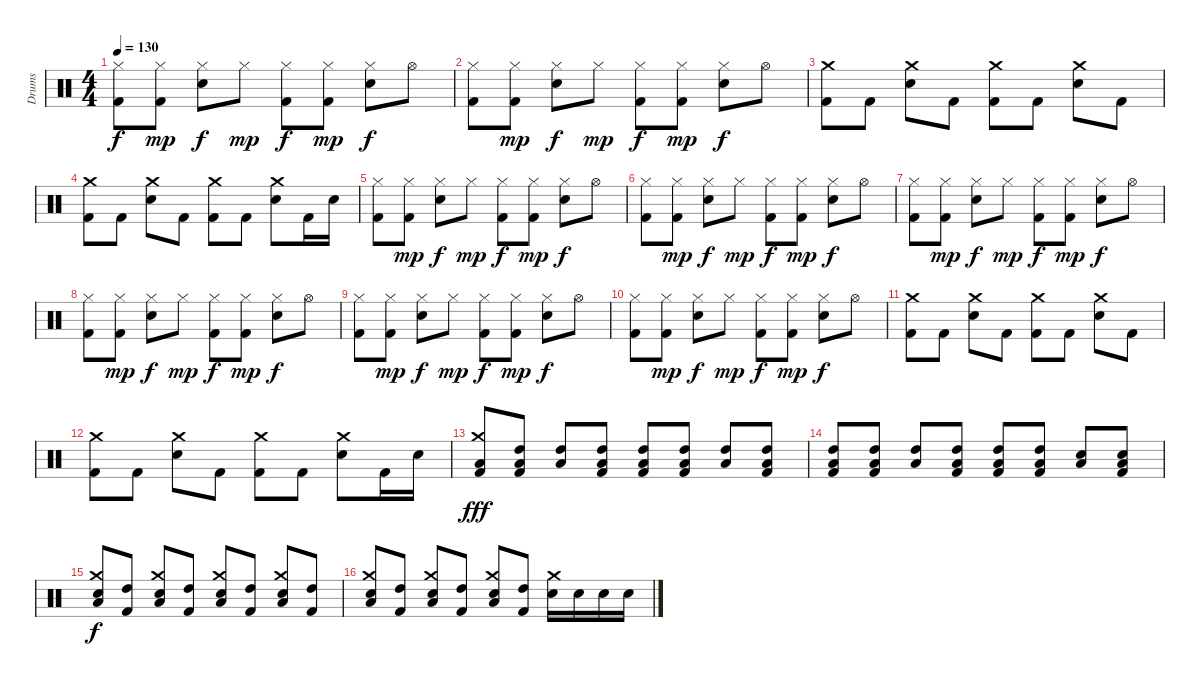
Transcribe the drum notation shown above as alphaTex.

\track ("Drums" "Drums") {instrument percussion}
\staff {score}
\articulation defaults
\ts (4 4)
\tempo 130
\clef neutral
\ks c
("Hi-Hat (closed)" "Kick (hit) 2").8{dy f} ("Hi-Hat (closed)" "Kick (hit) 2").8{dy mp} ("Hi-Hat (closed)" "Snare (hit) 2").8{dy f} "Hi-Hat (closed)".8{dy mp} ("Hi-Hat (closed)" "Kick (hit) 2").8{dy f} ("Hi-Hat (closed)" "Kick (hit) 2").8{dy mp} ("Hi-Hat (closed)" "Snare (hit) 2").8{dy f} "Hi-Hat (open)".8 |
("Hi-Hat (closed)" "Kick (hit) 2").8 ("Hi-Hat (closed)" "Kick (hit) 2").8{dy mp} ("Hi-Hat (closed)" "Snare (hit) 2").8{dy f} "Hi-Hat (closed)".8{dy mp} ("Hi-Hat (closed)" "Kick (hit) 2").8{dy f} ("Hi-Hat (closed)" "Kick (hit) 2").8{dy mp} ("Hi-Hat (closed)" "Snare (hit) 2").8{dy f} "Hi-Hat (open)".8 |
("Crash medium (hit)" "Kick (hit) 2").8 "Kick (hit) 2".8 ("Crash medium (hit)" "Snare (hit) 2").8 "Kick (hit) 2".8 ("Crash medium (hit)" "Kick (hit) 2").8 "Kick (hit) 2".8 ("Crash medium (hit)" "Snare (hit) 2").8 "Kick (hit) 2".8 |
("Crash medium (hit)" "Kick (hit) 2").8 "Kick (hit) 2".8 ("Crash medium (hit)" "Snare (hit) 2").8 "Kick (hit) 2".8 ("Crash medium (hit)" "Kick (hit) 2").8 "Kick (hit) 2".8 ("Crash medium (hit)" "Snare (hit) 2").8 "Kick (hit) 2".16 "Snare (hit) 2".16 |
("Hi-Hat (closed)" "Kick (hit) 2").8 ("Hi-Hat (closed)" "Kick (hit) 2").8{dy mp} ("Hi-Hat (closed)" "Snare (hit) 2").8{dy f} "Hi-Hat (closed)".8{dy mp} ("Hi-Hat (closed)" "Kick (hit) 2").8{dy f} ("Hi-Hat (closed)" "Kick (hit) 2").8{dy mp} ("Hi-Hat (closed)" "Snare (hit) 2").8{dy f} "Hi-Hat (open)".8 |
("Hi-Hat (closed)" "Kick (hit) 2").8 ("Hi-Hat (closed)" "Kick (hit) 2").8{dy mp} ("Hi-Hat (closed)" "Snare (hit) 2").8{dy f} "Hi-Hat (closed)".8{dy mp} ("Hi-Hat (closed)" "Kick (hit) 2").8{dy f} ("Hi-Hat (closed)" "Kick (hit) 2").8{dy mp} ("Hi-Hat (closed)" "Snare (hit) 2").8{dy f} "Hi-Hat (open)".8 |
("Hi-Hat (closed)" "Kick (hit) 2").8 ("Hi-Hat (closed)" "Kick (hit) 2").8{dy mp} ("Hi-Hat (closed)" "Snare (hit) 2").8{dy f} "Hi-Hat (closed)".8{dy mp} ("Hi-Hat (closed)" "Kick (hit) 2").8{dy f} ("Hi-Hat (closed)" "Kick (hit) 2").8{dy mp} ("Hi-Hat (closed)" "Snare (hit) 2").8{dy f} "Hi-Hat (open)".8 |
("Hi-Hat (closed)" "Kick (hit) 2").8 ("Hi-Hat (closed)" "Kick (hit) 2").8{dy mp} ("Hi-Hat (closed)" "Snare (hit) 2").8{dy f} "Hi-Hat (closed)".8{dy mp} ("Hi-Hat (closed)" "Kick (hit) 2").8{dy f} ("Hi-Hat (closed)" "Kick (hit) 2").8{dy mp} ("Hi-Hat (closed)" "Snare (hit) 2").8{dy f} "Hi-Hat (open)".8 |
("Hi-Hat (closed)" "Kick (hit) 2").8 ("Hi-Hat (closed)" "Kick (hit) 2").8{dy mp} ("Hi-Hat (closed)" "Snare (hit) 2").8{dy f} "Hi-Hat (closed)".8{dy mp} ("Hi-Hat (closed)" "Kick (hit) 2").8{dy f} ("Hi-Hat (closed)" "Kick (hit) 2").8{dy mp} ("Hi-Hat (closed)" "Snare (hit) 2").8{dy f} "Hi-Hat (open)".8 |
("Hi-Hat (closed)" "Kick (hit) 2").8 ("Hi-Hat (closed)" "Kick (hit) 2").8{dy mp} ("Hi-Hat (closed)" "Snare (hit) 2").8{dy f} "Hi-Hat (closed)".8{dy mp} ("Hi-Hat (closed)" "Kick (hit) 2").8{dy f} ("Hi-Hat (closed)" "Kick (hit) 2").8{dy mp} ("Hi-Hat (closed)" "Snare (hit) 2").8{dy f} "Hi-Hat (open)".8 |
("Crash medium (hit)" "Kick (hit) 2").8 "Kick (hit) 2".8 ("Crash medium (hit)" "Snare (hit) 2").8 "Kick (hit) 2".8 ("Crash medium (hit)" "Kick (hit) 2").8 "Kick (hit) 2".8 ("Crash medium (hit)" "Snare (hit) 2").8 "Kick (hit) 2".8 |
("Crash medium (hit)" "Kick (hit) 2").8 "Kick (hit) 2".8 ("Crash medium (hit)" "Snare (hit) 2").8 "Kick (hit) 2".8 ("Crash medium (hit)" "Kick (hit) 2").8 "Kick (hit) 2".8 ("Crash medium (hit)" "Snare (hit) 2").8 "Kick (hit) 2".16 "Snare (hit) 2".16 |
("Crash medium (hit)" "Low Tom (hit)" "Kick (hit) 2").8{dy fff} ("High Tom (hit)" "Low Tom (hit)" "Kick (hit) 2").8 ("High Tom (hit)" "Low Tom (hit)").8 ("High Tom (hit)" "Low Tom (hit)" "Kick (hit) 2").8 ("High Tom (hit)" "Low Tom (hit)" "Kick (hit) 2").8 ("High Tom (hit)" "Low Tom (hit)" "Kick (hit) 2").8 ("Low Tom (hit)" "High Tom (hit)").8 ("High Tom (hit)" "Low Tom (hit)" "Kick (hit) 2").8 |
("High Tom (hit)" "Low Tom (hit)" "Kick (hit) 2").8 ("High Tom (hit)" "Low Tom (hit)" "Kick (hit) 2").8 ("High Tom (hit)" "Low Tom (hit)").8 ("High Tom (hit)" "Low Tom (hit)" "Kick (hit) 2").8 ("High Tom (hit)" "Low Tom (hit)" "Kick (hit) 2").8 ("High Tom (hit)" "Low Tom (hit)" "Kick (hit) 2").8 ("Low Tom (hit)" "Snare (hit) 2").8 ("Low Tom (hit)" "Snare (hit) 2" "Kick (hit) 2").8 |
("Crash medium (hit)" "Low Tom (hit)" "Snare (hit) 2").8{dy f} ("High Tom (hit)" "Kick (hit) 2").8 ("Crash medium (hit)" "Low Tom (hit)" "Snare (hit) 2").8 ("High Tom (hit)" "Kick (hit) 2").8 ("Crash medium (hit)" "Low Tom (hit)" "Snare (hit) 2").8 ("High Tom (hit)" "Kick (hit) 2").8 ("Crash medium (hit)" "Low Tom (hit)" "Snare (hit) 2").8 ("High Tom (hit)" "Kick (hit) 2").8 |
("Crash medium (hit)" "Low Tom (hit)" "Snare (hit) 2").8 ("High Tom (hit)" "Kick (hit) 2").8 ("Crash medium (hit)" "Low Tom (hit)" "Snare (hit) 2").8 ("High Tom (hit)" "Kick (hit) 2").8 ("Crash medium (hit)" "Low Tom (hit)" "Snare (hit) 2").8 ("High Tom (hit)" "Kick (hit) 2").8 ("Crash medium (hit)" "Snare (hit) 2").16 "Snare (hit) 2".16 "Snare (hit) 2".16 "Snare (hit) 2".16
